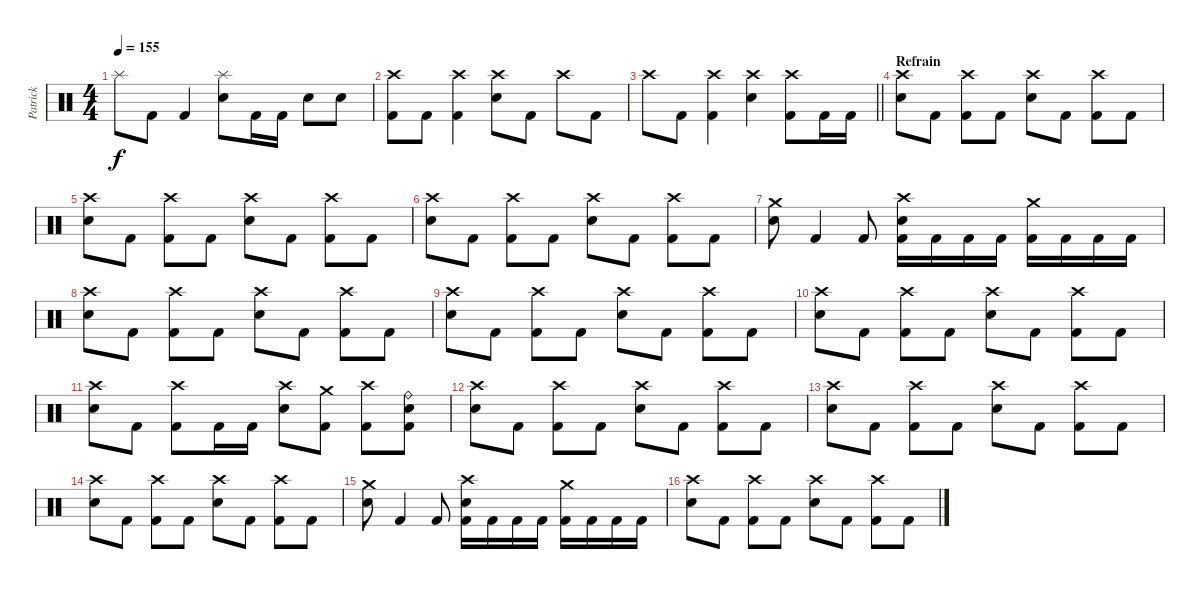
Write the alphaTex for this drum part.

\track ("Patrick" "Patrick") {instrument percussion}
\staff {score}
\articulation defaults
\ts (4 4)
\tempo 155
\clef neutral
\ks c "Splash (hit)".8{dy f} "Kick (hit) 2".8 "Kick (hit) 2".4
("Splash (hit)" "Electric Snare (hit)").8 "Kick (hit) 2".16 "Kick (hit) 2".16 "Electric Snare (hit)".8 "Electric Snare (hit)".8 |
("Crash high (hit)" "Kick (hit) 2").8 "Kick (hit) 2".8 ("Crash high (hit)" "Kick (hit) 2").4 ("Crash high (hit)" "Electric Snare (hit)").8 "Kick (hit) 2".8 "Crash high (hit)".8 "Kick (hit) 2".8 |
\barLineRight lightlight "Crash high (hit)".8 "Kick (hit) 2".8
("Crash high (hit)" "Kick (hit) 2").4 ("Crash high (hit)" "Electric Snare (hit)").4 ("Crash high (hit)" "Kick (hit) 2").8 "Kick (hit) 2".16 "Kick (hit) 2".16 |
\section ("" "Refrain")
("Crash high (hit)" "Electric Snare (hit)").8 "Kick (hit) 2".8 ("Crash high (hit)" "Kick (hit) 2").8 "Kick (hit) 2".8 ("Crash high (hit)" "Electric Snare (hit)").8 "Kick (hit) 2".8 ("Crash high (hit)" "Kick (hit) 2").8 "Kick (hit) 2".8 |
("Crash high (hit)" "Electric Snare (hit)").8 "Kick (hit) 2".8 ("Crash high (hit)" "Kick (hit) 2").8 "Kick (hit) 2".8 ("Crash high (hit)" "Electric Snare (hit)").8 "Kick (hit) 2".8 ("Crash high (hit)" "Kick (hit) 2").8 "Kick (hit) 2".8 |
("Crash high (hit)" "Electric Snare (hit)").8 "Kick (hit) 2".8 ("Crash high (hit)" "Kick (hit) 2").8 "Kick (hit) 2".8 ("Crash high (hit)" "Electric Snare (hit)").8 "Kick (hit) 2".8 ("Crash high (hit)" "Kick (hit) 2").8 "Kick (hit) 2".8 |
("Crash medium (hit)" "Electric Snare (hit)").8 "Kick (hit) 2".4 "Kick (hit) 2".8 ("Crash high (hit)" "Electric Snare (hit)" "Kick (hit) 2").16 "Kick (hit) 2".16 "Kick (hit) 2".16 "Kick (hit) 2".16 ("Crash medium (hit)" "Kick (hit) 2").16 "Kick (hit) 2".16 "Kick (hit) 2".16 "Kick (hit) 2".16 |
("Crash high (hit)" "Electric Snare (hit)").8 "Kick (hit) 2".8 ("Crash high (hit)" "Kick (hit) 2").8 "Kick (hit) 2".8 ("Crash high (hit)" "Electric Snare (hit)").8 "Kick (hit) 2".8 ("Crash high (hit)" "Kick (hit) 2").8 "Kick (hit) 2".8 |
("Crash high (hit)" "Electric Snare (hit)").8 "Kick (hit) 2".8 ("Crash high (hit)" "Kick (hit) 2").8 "Kick (hit) 2".8 ("Crash high (hit)" "Electric Snare (hit)").8 "Kick (hit) 2".8 ("Crash high (hit)" "Kick (hit) 2").8 "Kick (hit) 2".8 |
("Crash high (hit)" "Electric Snare (hit)").8 "Kick (hit) 2".8 ("Crash high (hit)" "Kick (hit) 2").8 "Kick (hit) 2".8 ("Crash high (hit)" "Electric Snare (hit)").8 "Kick (hit) 2".8 ("Crash high (hit)" "Kick (hit) 2").8 "Kick (hit) 2".8 |
("Crash high (hit)" "Electric Snare (hit)").8 "Kick (hit) 2".8 ("Crash high (hit)" "Kick (hit) 2").8 "Kick (hit) 2".16 "Kick (hit) 2".16 ("Crash high (hit)" "Electric Snare (hit)").8 ("Crash medium (hit)" "Kick (hit) 2").8 ("Crash high (hit)" "Kick (hit) 2").8 ("Ride (bell)" "Electric Snare (hit)" "Kick (hit) 2").8 |
("Crash high (hit)" "Electric Snare (hit)").8 "Kick (hit) 2".8 ("Crash high (hit)" "Kick (hit) 2").8 "Kick (hit) 2".8 ("Crash high (hit)" "Electric Snare (hit)").8 "Kick (hit) 2".8 ("Crash high (hit)" "Kick (hit) 2").8 "Kick (hit) 2".8 |
("Crash high (hit)" "Electric Snare (hit)").8 "Kick (hit) 2".8 ("Crash high (hit)" "Kick (hit) 2").8 "Kick (hit) 2".8 ("Crash high (hit)" "Electric Snare (hit)").8 "Kick (hit) 2".8 ("Crash high (hit)" "Kick (hit) 2").8 "Kick (hit) 2".8 |
("Crash high (hit)" "Electric Snare (hit)").8 "Kick (hit) 2".8 ("Crash high (hit)" "Kick (hit) 2").8 "Kick (hit) 2".8 ("Crash high (hit)" "Electric Snare (hit)").8 "Kick (hit) 2".8 ("Crash high (hit)" "Kick (hit) 2").8 "Kick (hit) 2".8 |
("Crash medium (hit)" "Electric Snare (hit)").8 "Kick (hit) 2".4 "Kick (hit) 2".8 ("Crash high (hit)" "Electric Snare (hit)" "Kick (hit) 2").16 "Kick (hit) 2".16 "Kick (hit) 2".16 "Kick (hit) 2".16 ("Crash medium (hit)" "Kick (hit) 2").16 "Kick (hit) 2".16 "Kick (hit) 2".16 "Kick (hit) 2".16 |
("Crash high (hit)" "Electric Snare (hit)").8 "Kick (hit) 2".8 ("Crash high (hit)" "Kick (hit) 2").8 "Kick (hit) 2".8 ("Crash high (hit)" "Electric Snare (hit)").8 "Kick (hit) 2".8 ("Crash high (hit)" "Kick (hit) 2").8 "Kick (hit) 2".8
